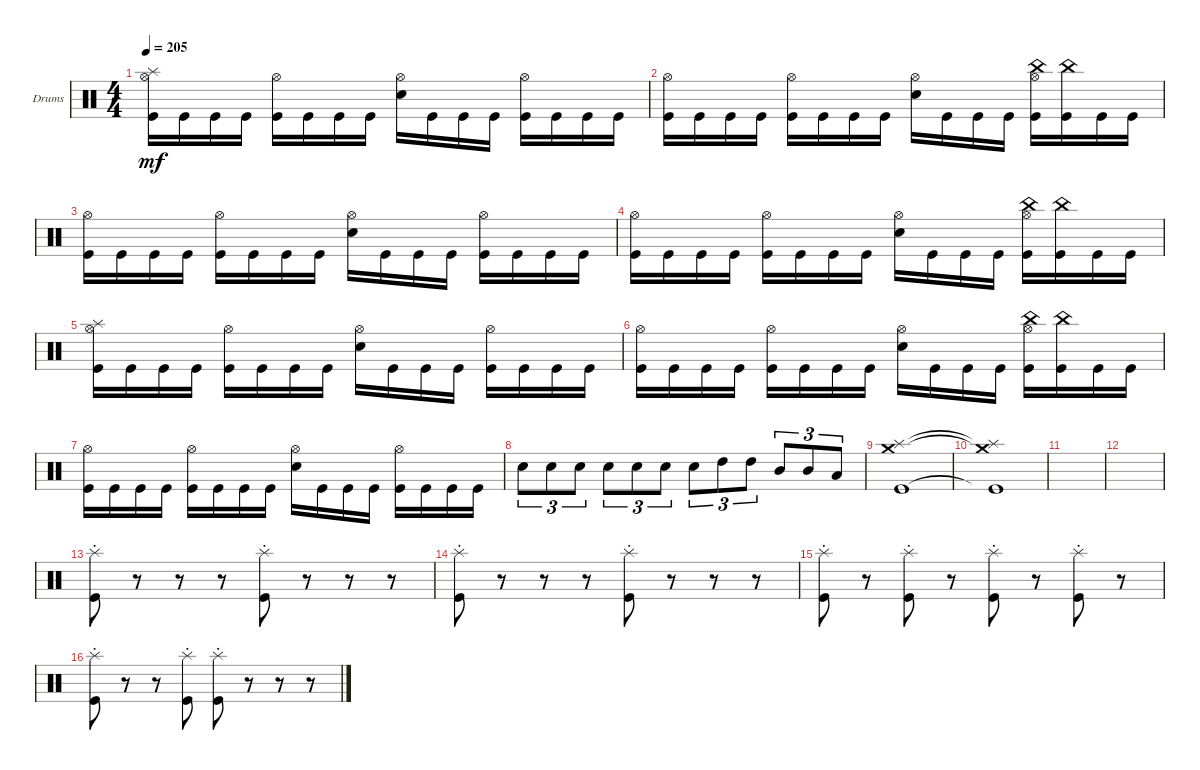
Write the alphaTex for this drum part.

\defaultSystemsLayout 4
\bracketExtendMode groupsimilarinstruments
\firstSystemTrackNameOrientation horizontal
\otherSystemsTrackNameOrientation horizontal
\track ("Drumkit" "Drums") {instrument percussion}
\staff {score}
\articulation defaults
\ts (4 4)
\tempo 205
\clef neutral
\ks c
("Kick (hit)" "Hi-Hat (open)" "Splash (hit)").16{dy mf} "Kick (hit)".16 "Kick (hit)".16 "Kick (hit)".16 ("Kick (hit)" "Hi-Hat (open)").16 "Kick (hit)".16 "Kick (hit)".16 "Kick (hit)".16 ("Snare (hit) 2" "Hi-Hat (open)").16 "Kick (hit)".16 "Kick (hit)".16 "Kick (hit)".16 ("Kick (hit)" "Hi-Hat (open)").16 "Kick (hit)".16 "Kick (hit)".16 "Kick (hit)".16 |
("Kick (hit)" "Hi-Hat (open)").16 "Kick (hit)".16 "Kick (hit)".16 "Kick (hit)".16 ("Kick (hit)" "Hi-Hat (open)").16 "Kick (hit)".16 "Kick (hit)".16 "Kick (hit)".16 ("Snare (hit) 2" "Hi-Hat (open)").16 "Kick (hit)".16 "Kick (hit)".16 "Kick (hit)".16 ("Kick (hit)" "Hi-Hat (open)" "China (hit)").16 ("Kick (hit)" "China (hit)").16 "Kick (hit)".16 "Kick (hit)".16 |
("Kick (hit)" "Hi-Hat (open)").16 "Kick (hit)".16 "Kick (hit)".16 "Kick (hit)".16 ("Kick (hit)" "Hi-Hat (open)").16 "Kick (hit)".16 "Kick (hit)".16 "Kick (hit)".16 ("Snare (hit) 2" "Hi-Hat (open)").16 "Kick (hit)".16 "Kick (hit)".16 "Kick (hit)".16 ("Kick (hit)" "Hi-Hat (open)").16 "Kick (hit)".16 "Kick (hit)".16 "Kick (hit)".16 |
("Kick (hit)" "Hi-Hat (open)").16 "Kick (hit)".16 "Kick (hit)".16 "Kick (hit)".16 ("Kick (hit)" "Hi-Hat (open)").16 "Kick (hit)".16 "Kick (hit)".16 "Kick (hit)".16 ("Snare (hit) 2" "Hi-Hat (open)").16 "Kick (hit)".16 "Kick (hit)".16 "Kick (hit)".16 ("Kick (hit)" "Hi-Hat (open)" "China (hit)").16 ("Kick (hit)" "China (hit)").16 "Kick (hit)".16 "Kick (hit)".16 |
("Kick (hit)" "Hi-Hat (open)" "Splash (hit)").16 "Kick (hit)".16 "Kick (hit)".16 "Kick (hit)".16 ("Kick (hit)" "Hi-Hat (open)").16 "Kick (hit)".16 "Kick (hit)".16 "Kick (hit)".16 ("Snare (hit) 2" "Hi-Hat (open)").16 "Kick (hit)".16 "Kick (hit)".16 "Kick (hit)".16 ("Kick (hit)" "Hi-Hat (open)").16 "Kick (hit)".16 "Kick (hit)".16 "Kick (hit)".16 |
("Kick (hit)" "Hi-Hat (open)").16 "Kick (hit)".16 "Kick (hit)".16 "Kick (hit)".16 ("Kick (hit)" "Hi-Hat (open)").16 "Kick (hit)".16 "Kick (hit)".16 "Kick (hit)".16 ("Snare (hit) 2" "Hi-Hat (open)").16 "Kick (hit)".16 "Kick (hit)".16 "Kick (hit)".16 ("Kick (hit)" "Hi-Hat (open)" "China (hit)").16 ("Kick (hit)" "China (hit)").16 "Kick (hit)".16 "Kick (hit)".16 |
("Kick (hit)" "Hi-Hat (open)").16 "Kick (hit)".16 "Kick (hit)".16 "Kick (hit)".16 ("Kick (hit)" "Hi-Hat (open)").16 "Kick (hit)".16 "Kick (hit)".16 "Kick (hit)".16 ("Snare (hit) 2" "Hi-Hat (open)").16 "Kick (hit)".16 "Kick (hit)".16 "Kick (hit)".16 ("Kick (hit)" "Hi-Hat (open)").16 "Kick (hit)".16 "Kick (hit)".16 "Kick (hit)".16 |
"Snare (hit) 2".8{tu (3 2)} "Snare (hit) 2".8{tu (3 2)} "Snare (hit) 2".8{tu (3 2)} "Snare (hit) 2".8{tu (3 2)} "Snare (hit) 2".8{tu (3 2)} "Snare (hit) 2".8{tu (3 2)} "Snare (hit) 2".8{tu (3 2)} "High Tom (hit)".8{tu (3 2)} "High Tom (hit)".8{tu (3 2)} "Mid Tom (hit)".8{tu (3 2)} "Mid Tom (hit)".8{tu (3 2)} "Low Tom (hit)".8{tu (3 2)} |
("Kick (hit)" "Splash (hit)" "Crash medium (hit)").1 |
("Kick (hit)"{t} "Splash (hit)"{t} "Crash medium (hit)"{t}).1 |
|
|
("Kick (hit)" "Splash (hit)"{st}).8 r.8 r.8 r.8 ("Kick (hit)" "Splash (hit)"{st}).8 r.8 r.8 r.8 |
("Kick (hit)" "Splash (hit)"{st}).8 r.8 r.8 r.8 ("Kick (hit)" "Splash (hit)"{st}).8 r.8 r.8 r.8 |
("Kick (hit)" "Splash (hit)"{st}).8 r.8 ("Kick (hit)" "Splash (hit)"{st}).8 r.8 ("Kick (hit)" "Splash (hit)"{st}).8 r.8 ("Kick (hit)" "Splash (hit)"{st}).8 r.8 |
("Kick (hit)" "Splash (hit)"{st}).8 r.8 r.8 ("Kick (hit)" "Splash (hit)"{st}).8 ("Kick (hit)" "Splash (hit)"{st}).8 r.8 r.8 r.8
